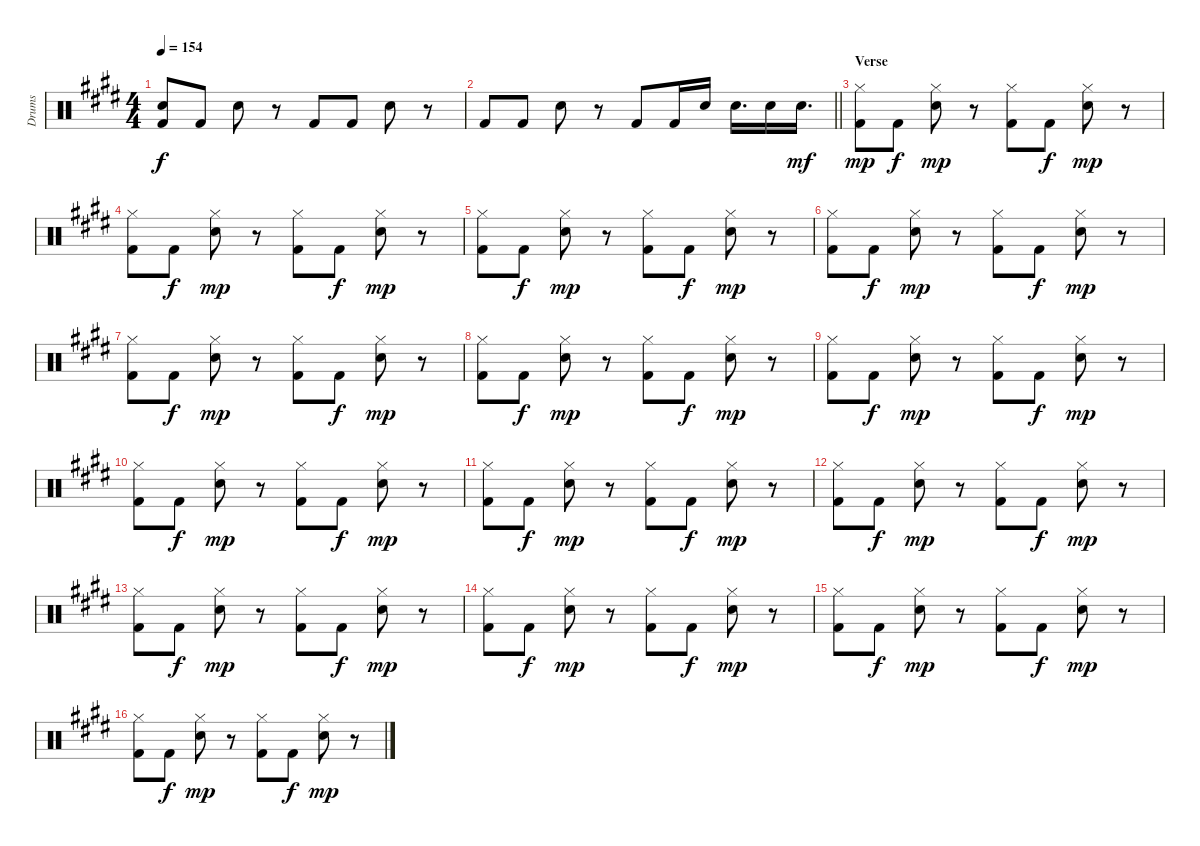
\track ("Drums" "Drums") {instrument percussion}
\staff {score}
\articulation defaults
\ts (4 4)
\tempo 154
\clef neutral
\ks e
("Electric Snare (hit)" "Kick (hit) 2").8{dy f} "Kick (hit) 2".8 "Electric Snare (hit)".8 r.8 "Kick (hit) 2".8 "Kick (hit) 2".8 "Electric Snare (hit)".8 r.8 |
\barLineRight lightlight "Kick (hit) 2".8 "Kick (hit) 2".8 "Electric Snare (hit)".8
r.8 "Kick (hit) 2".8 "Kick (hit) 2".16 "Electric Snare (hit)".16 "Electric Snare (hit)".16{d} "Electric Snare (hit)".16 "Electric Snare (hit)".16{d dy mf} |
\section ("" "Verse")
("Hi-Hat (closed)" "Kick (hit) 2").8{dy mp} "Kick (hit) 2".8{dy f} ("Hi-Hat (closed)" "Electric Snare (hit)").8{dy mp} r.8 ("Hi-Hat (closed)" "Kick (hit) 2").8 "Kick (hit) 2".8{dy f} ("Hi-Hat (closed)" "Electric Snare (hit)").8{dy mp} r.8 |
("Hi-Hat (closed)" "Kick (hit) 2").8 "Kick (hit) 2".8{dy f} ("Hi-Hat (closed)" "Electric Snare (hit)").8{dy mp} r.8 ("Hi-Hat (closed)" "Kick (hit) 2").8 "Kick (hit) 2".8{dy f} ("Hi-Hat (closed)" "Electric Snare (hit)").8{dy mp} r.8 |
("Hi-Hat (closed)" "Kick (hit) 2").8 "Kick (hit) 2".8{dy f} ("Hi-Hat (closed)" "Electric Snare (hit)").8{dy mp} r.8 ("Hi-Hat (closed)" "Kick (hit) 2").8 "Kick (hit) 2".8{dy f} ("Hi-Hat (closed)" "Electric Snare (hit)").8{dy mp} r.8 |
("Hi-Hat (closed)" "Kick (hit) 2").8 "Kick (hit) 2".8{dy f} ("Hi-Hat (closed)" "Electric Snare (hit)").8{dy mp} r.8 ("Hi-Hat (closed)" "Kick (hit) 2").8 "Kick (hit) 2".8{dy f} ("Hi-Hat (closed)" "Electric Snare (hit)").8{dy mp} r.8 |
("Hi-Hat (closed)" "Kick (hit) 2").8 "Kick (hit) 2".8{dy f} ("Hi-Hat (closed)" "Electric Snare (hit)").8{dy mp} r.8 ("Hi-Hat (closed)" "Kick (hit) 2").8 "Kick (hit) 2".8{dy f} ("Hi-Hat (closed)" "Electric Snare (hit)").8{dy mp} r.8 |
("Hi-Hat (closed)" "Kick (hit) 2").8 "Kick (hit) 2".8{dy f} ("Hi-Hat (closed)" "Electric Snare (hit)").8{dy mp} r.8 ("Hi-Hat (closed)" "Kick (hit) 2").8 "Kick (hit) 2".8{dy f} ("Hi-Hat (closed)" "Electric Snare (hit)").8{dy mp} r.8 |
("Hi-Hat (closed)" "Kick (hit) 2").8 "Kick (hit) 2".8{dy f} ("Hi-Hat (closed)" "Electric Snare (hit)").8{dy mp} r.8 ("Hi-Hat (closed)" "Kick (hit) 2").8 "Kick (hit) 2".8{dy f} ("Hi-Hat (closed)" "Electric Snare (hit)").8{dy mp} r.8 |
("Hi-Hat (closed)" "Kick (hit) 2").8 "Kick (hit) 2".8{dy f} ("Hi-Hat (closed)" "Electric Snare (hit)").8{dy mp} r.8 ("Hi-Hat (closed)" "Kick (hit) 2").8 "Kick (hit) 2".8{dy f} ("Hi-Hat (closed)" "Electric Snare (hit)").8{dy mp} r.8 |
("Hi-Hat (closed)" "Kick (hit) 2").8 "Kick (hit) 2".8{dy f} ("Hi-Hat (closed)" "Electric Snare (hit)").8{dy mp} r.8 ("Hi-Hat (closed)" "Kick (hit) 2").8 "Kick (hit) 2".8{dy f} ("Hi-Hat (closed)" "Electric Snare (hit)").8{dy mp} r.8 |
("Hi-Hat (closed)" "Kick (hit) 2").8 "Kick (hit) 2".8{dy f} ("Hi-Hat (closed)" "Electric Snare (hit)").8{dy mp} r.8 ("Hi-Hat (closed)" "Kick (hit) 2").8 "Kick (hit) 2".8{dy f} ("Hi-Hat (closed)" "Electric Snare (hit)").8{dy mp} r.8 |
("Hi-Hat (closed)" "Kick (hit) 2").8 "Kick (hit) 2".8{dy f} ("Hi-Hat (closed)" "Electric Snare (hit)").8{dy mp} r.8 ("Hi-Hat (closed)" "Kick (hit) 2").8 "Kick (hit) 2".8{dy f} ("Hi-Hat (closed)" "Electric Snare (hit)").8{dy mp} r.8 |
("Hi-Hat (closed)" "Kick (hit) 2").8 "Kick (hit) 2".8{dy f} ("Hi-Hat (closed)" "Electric Snare (hit)").8{dy mp} r.8 ("Hi-Hat (closed)" "Kick (hit) 2").8 "Kick (hit) 2".8{dy f} ("Hi-Hat (closed)" "Electric Snare (hit)").8{dy mp} r.8 |
("Hi-Hat (closed)" "Kick (hit) 2").8 "Kick (hit) 2".8{dy f} ("Hi-Hat (closed)" "Electric Snare (hit)").8{dy mp} r.8 ("Hi-Hat (closed)" "Kick (hit) 2").8 "Kick (hit) 2".8{dy f} ("Hi-Hat (closed)" "Electric Snare (hit)").8{dy mp} r.8 |
("Hi-Hat (closed)" "Kick (hit) 2").8 "Kick (hit) 2".8{dy f} ("Hi-Hat (closed)" "Electric Snare (hit)").8{dy mp} r.8 ("Hi-Hat (closed)" "Kick (hit) 2").8 "Kick (hit) 2".8{dy f} ("Hi-Hat (closed)" "Electric Snare (hit)").8{dy mp} r.8
